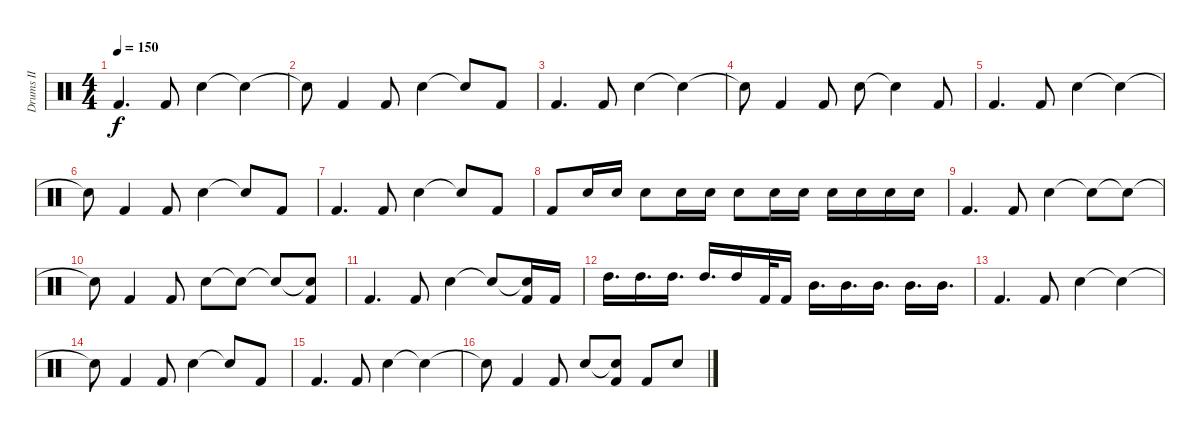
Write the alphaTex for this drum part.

\track ("Drums II" "Drums II") {instrument percussion}
\staff {score}
\articulation defaults
\ts (4 4)
\tempo 150
\clef neutral
\ks c "Kick (hit) 2".4{d dy f} "Kick (hit) 2".8 "Electric Snare (hit)".4 "Snare (hit)"{t}.4
|
"Snare (hit)"{t}.8 "Kick (hit) 2".4 "Kick (hit) 2".8 "Electric Snare (hit)".4 "Snare (hit)"{t}.8 "Kick (hit) 2".8 |
"Kick (hit) 2".4{d} "Kick (hit) 2".8 "Electric Snare (hit)".4 "Snare (hit)"{t}.4 |
"Snare (hit)"{t}.8 "Kick (hit) 2".4 "Kick (hit) 2".8 "Electric Snare (hit)".8 "Snare (hit)"{t}.4 "Kick (hit) 2".8 |
"Kick (hit) 2".4{d} "Kick (hit) 2".8 "Electric Snare (hit)".4 "Snare (hit)"{t}.4 |
"Snare (hit)"{t}.8 "Kick (hit) 2".4 "Kick (hit) 2".8 "Electric Snare (hit)".4 "Snare (hit)"{t}.8 "Kick (hit) 2".8 |
"Kick (hit) 2".4{d} "Kick (hit) 2".8 "Electric Snare (hit)".4 "Snare (hit)"{t}.8 "Kick (hit) 2".8 |
"Kick (hit) 2".8 "Electric Snare (hit)".16 "Electric Snare (hit)".16 "Electric Snare (hit)".8 "Electric Snare (hit)".16 "Electric Snare (hit)".16 "Electric Snare (hit)".8 "Electric Snare (hit)".16 "Electric Snare (hit)".16 "Electric Snare (hit)".16 "Electric Snare (hit)".16 "Electric Snare (hit)".16 "Electric Snare (hit)".16 |
"Kick (hit) 2".4{d} "Kick (hit) 2".8 "Electric Snare (hit)".4 "Snare (hit)"{t}.8 "Snare (hit)"{t}.8 |
"Snare (hit)"{t}.8 "Kick (hit) 2".4 "Kick (hit) 2".8 "Electric Snare (hit)".8 "Snare (hit)"{t}.8 "Snare (hit)"{t}.8 ("Snare (hit)"{t} "Kick (hit) 2").8 |
"Kick (hit) 2".4{d} "Kick (hit) 2".8 "Electric Snare (hit)".4 "Snare (hit)"{t}.8 ("Snare (hit)"{t} "Kick (hit) 2").16 "Kick (hit) 2".16 |
"High Tom (hit)".16{d} "High Tom (hit)".16{d} "High Tom (hit)".16{d} "High Tom (hit)".16{d} "High Tom (hit)".16 "Kick (hit) 2".32 "Kick (hit) 2".16 "Mid Tom (hit)".16{d} "Mid Tom (hit)".16{d} "Mid Tom (hit)".16{d} "Mid Tom (hit)".16{d} "Mid Tom (hit)".16{d} |
"Kick (hit) 2".4{d} "Kick (hit) 2".8 "Electric Snare (hit)".4 "Snare (hit)"{t}.4 |
"Snare (hit)"{t}.8 "Kick (hit) 2".4 "Kick (hit) 2".8 "Electric Snare (hit)".4 "Snare (hit)"{t}.8 "Kick (hit) 2".8 |
"Kick (hit) 2".4{d} "Kick (hit) 2".8 "Electric Snare (hit)".4 "Snare (hit)"{t}.4 |
"Snare (hit)"{t}.8 "Kick (hit) 2".4 "Kick (hit) 2".8 "Electric Snare (hit)".8 ("Snare (hit)"{t} "Kick (hit) 2").8 "Kick (hit) 2".8 "Electric Snare (hit)".8
